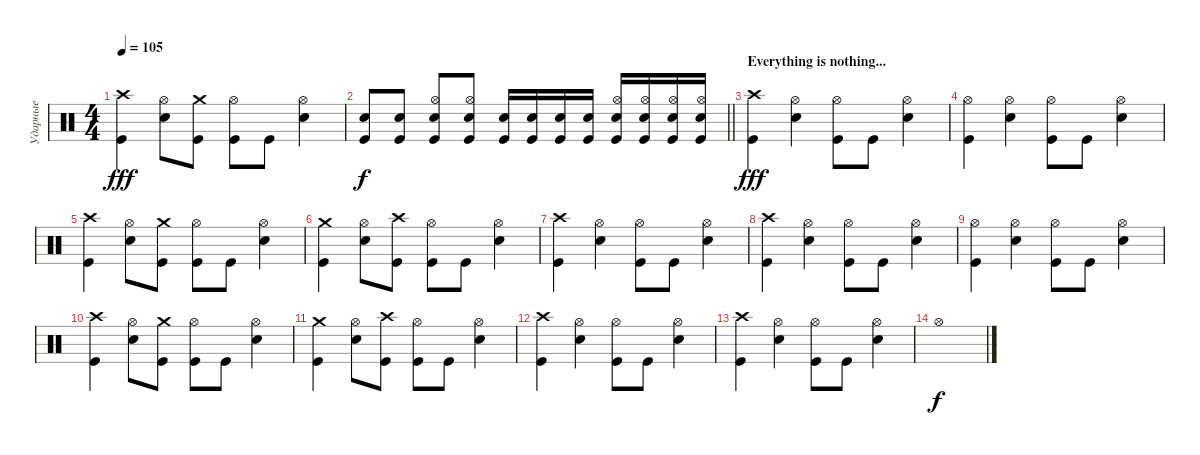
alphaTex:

\track ("Ударные" "Ударные") {instrument percussion}
\staff {score}
\articulation defaults
\ts (4 4)
\tempo 105
\clef neutral
\ks c
("Crash high (hit)" "Kick (hit)").4{dy fff} ("Hi-Hat (open)" "Electric Snare (hit)").8 ("Crash medium (hit)" "Kick (hit)").8 ("Hi-Hat (open)" "Kick (hit)").8 "Kick (hit)".8 ("Hi-Hat (open)" "Electric Snare (hit)").4 |
\barLineRight lightlight
("Snare (hit) 2" "Kick (hit)").8{dy f} ("Kick (hit)" "Snare (hit) 2").8 ("Snare (hit) 2" "Kick (hit)" "Hi-Hat (open)").8 ("Hi-Hat (open)" "Kick (hit)" "Snare (hit) 2").8 ("Snare (hit) 2" "Kick (hit)").16 ("Kick (hit)" "Snare (hit) 2").16 ("Snare (hit) 2" "Kick (hit)").16 ("Kick (hit)" "Snare (hit) 2").16 ("Snare (hit) 2" "Kick (hit)" "Hi-Hat (open)").16 ("Kick (hit)" "Snare (hit) 2" "Hi-Hat (open)").16 ("Kick (hit)" "Snare (hit) 2" "Hi-Hat (open)").16 ("Hi-Hat (open)" "Kick (hit)" "Snare (hit) 2").16 |
\section ("" "Everything is nothing...")
("Crash high (hit)" "Kick (hit)").4{dy fff volume 16} ("Hi-Hat (open)" "Electric Snare (hit)").4 ("Hi-Hat (open)" "Kick (hit)").8 "Kick (hit)".8 ("Hi-Hat (open)" "Electric Snare (hit)").4 |
("Hi-Hat (open)" "Kick (hit)").4 ("Hi-Hat (open)" "Electric Snare (hit)").4 ("Hi-Hat (open)" "Kick (hit)").8 "Kick (hit)".8 ("Hi-Hat (open)" "Electric Snare (hit)").4 |
("Crash high (hit)" "Kick (hit)").4 ("Hi-Hat (open)" "Electric Snare (hit)").8 ("Crash medium (hit)" "Kick (hit)").8 ("Hi-Hat (open)" "Kick (hit)").8 "Kick (hit)".8 ("Hi-Hat (open)" "Electric Snare (hit)").4 |
("Crash medium (hit)" "Kick (hit)").4 ("Hi-Hat (open)" "Electric Snare (hit)").8 ("Crash high (hit)" "Kick (hit)").8 ("Hi-Hat (open)" "Kick (hit)").8 "Kick (hit)".8 ("Hi-Hat (open)" "Electric Snare (hit)").4 |
("Crash high (hit)" "Kick (hit)").4 ("Hi-Hat (open)" "Electric Snare (hit)").4 ("Hi-Hat (open)" "Kick (hit)").8 "Kick (hit)".8 ("Hi-Hat (open)" "Electric Snare (hit)").4 |
("Crash high (hit)" "Kick (hit)").4{volume 16} ("Hi-Hat (open)" "Electric Snare (hit)").4 ("Hi-Hat (open)" "Kick (hit)").8 "Kick (hit)".8 ("Hi-Hat (open)" "Electric Snare (hit)").4 |
("Hi-Hat (open)" "Kick (hit)").4 ("Hi-Hat (open)" "Electric Snare (hit)").4 ("Hi-Hat (open)" "Kick (hit)").8 "Kick (hit)".8 ("Hi-Hat (open)" "Electric Snare (hit)").4 |
("Crash high (hit)" "Kick (hit)").4 ("Hi-Hat (open)" "Electric Snare (hit)").8 ("Crash medium (hit)" "Kick (hit)").8 ("Hi-Hat (open)" "Kick (hit)").8 "Kick (hit)".8 ("Hi-Hat (open)" "Electric Snare (hit)").4 |
("Crash medium (hit)" "Kick (hit)").4 ("Hi-Hat (open)" "Electric Snare (hit)").8 ("Crash high (hit)" "Kick (hit)").8 ("Hi-Hat (open)" "Kick (hit)").8 "Kick (hit)".8 ("Hi-Hat (open)" "Electric Snare (hit)").4 |
("Crash high (hit)" "Kick (hit)").4 ("Hi-Hat (open)" "Electric Snare (hit)").4 ("Hi-Hat (open)" "Kick (hit)").8 "Kick (hit)".8 ("Hi-Hat (open)" "Electric Snare (hit)").4 |
("Crash high (hit)" "Kick (hit)").4{volume 16} ("Hi-Hat (open)" "Electric Snare (hit)").4 ("Hi-Hat (open)" "Kick (hit)").8 "Kick (hit)".8 ("Hi-Hat (open)" "Electric Snare (hit)").4 |
"Hi-Hat (open)".1{dy f}
